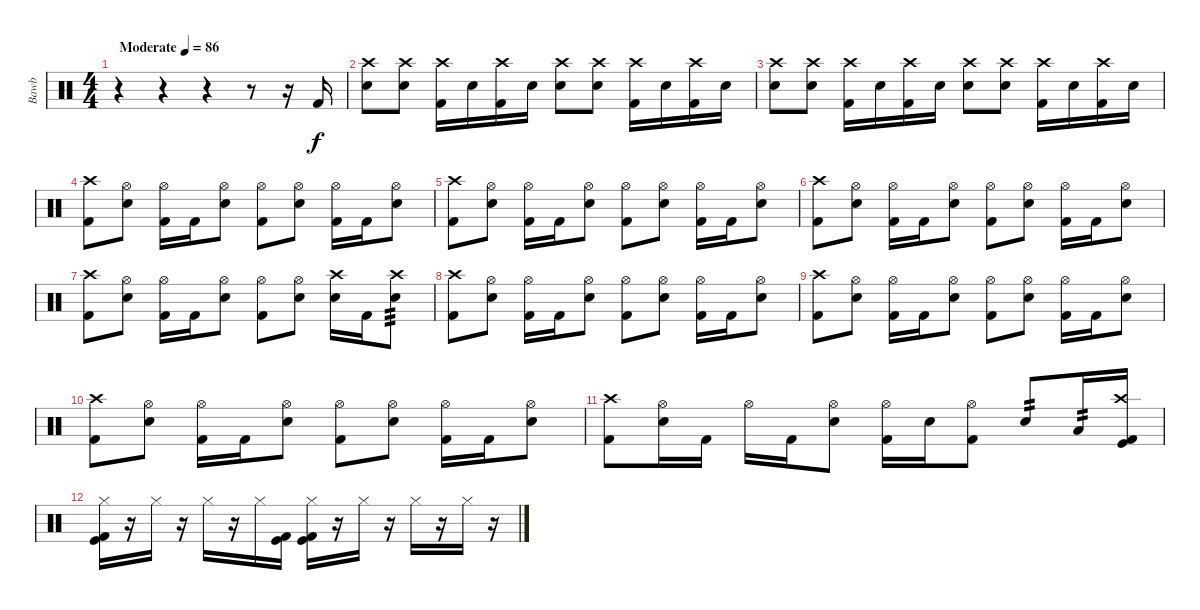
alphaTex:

\track ("Bawb" "Bawb") {instrument percussion}
\staff {score}
\articulation defaults
\ts (4 4)
\tempo (86 "Moderate")
\clef neutral
\ks c
r.4{dy f} r.4 r.4 r.8 r.16 "Kick (hit) 2".16 |
("Crash high (hit)" "Electric Snare (hit)").8 ("Crash high (hit)" "Electric Snare (hit)").8 ("Crash high (hit)" "Kick (hit) 2").16 "Electric Snare (hit)".16 ("Crash high (hit)" "Kick (hit) 2").16 "Electric Snare (hit)".16 ("Crash high (hit)" "Electric Snare (hit)").8 ("Crash high (hit)" "Electric Snare (hit)").8 ("Crash high (hit)" "Kick (hit) 2").16 "Electric Snare (hit)".16 ("Crash high (hit)" "Kick (hit) 2").16 "Electric Snare (hit)".16 |
("Crash high (hit)" "Electric Snare (hit)").8 ("Crash high (hit)" "Electric Snare (hit)").8 ("Crash high (hit)" "Kick (hit) 2").16 "Electric Snare (hit)".16 ("Crash high (hit)" "Kick (hit) 2").16 "Electric Snare (hit)".16 ("Crash high (hit)" "Electric Snare (hit)").8 ("Crash high (hit)" "Electric Snare (hit)").8 ("Crash high (hit)" "Kick (hit) 2").16 "Electric Snare (hit)".16 ("Crash high (hit)" "Kick (hit) 2").16 "Electric Snare (hit)".16 |
("Crash high (hit)" "Kick (hit) 2").8 ("Hi-Hat (open)" "Electric Snare (hit)").8 ("Hi-Hat (open)" "Kick (hit) 2").16 "Kick (hit) 2".16 ("Hi-Hat (open)" "Electric Snare (hit)").8 ("Hi-Hat (open)" "Kick (hit) 2").8 ("Hi-Hat (open)" "Electric Snare (hit)").8 ("Hi-Hat (open)" "Kick (hit) 2").16 "Kick (hit) 2".16 ("Hi-Hat (open)" "Electric Snare (hit)").8 |
("Crash high (hit)" "Kick (hit) 2").8 ("Hi-Hat (open)" "Electric Snare (hit)").8 ("Hi-Hat (open)" "Kick (hit) 2").16 "Kick (hit) 2".16 ("Hi-Hat (open)" "Electric Snare (hit)").8 ("Hi-Hat (open)" "Kick (hit) 2").8 ("Hi-Hat (open)" "Electric Snare (hit)").8 ("Hi-Hat (open)" "Kick (hit) 2").16 "Kick (hit) 2".16 ("Hi-Hat (open)" "Electric Snare (hit)").8 |
("Crash high (hit)" "Kick (hit) 2").8 ("Hi-Hat (open)" "Electric Snare (hit)").8 ("Hi-Hat (open)" "Kick (hit) 2").16 "Kick (hit) 2".16 ("Hi-Hat (open)" "Electric Snare (hit)").8 ("Hi-Hat (open)" "Kick (hit) 2").8 ("Hi-Hat (open)" "Electric Snare (hit)").8 ("Hi-Hat (open)" "Kick (hit) 2").16 "Kick (hit) 2".16 ("Hi-Hat (open)" "Electric Snare (hit)").8 |
("Crash high (hit)" "Kick (hit) 2").8 ("Hi-Hat (open)" "Electric Snare (hit)").8 ("Hi-Hat (open)" "Kick (hit) 2").16 "Kick (hit) 2".16 ("Hi-Hat (open)" "Electric Snare (hit)").8 ("Hi-Hat (open)" "Kick (hit) 2").8 ("Hi-Hat (open)" "Electric Snare (hit)").8 ("Crash high (hit)" "Electric Snare (hit)").16 "Kick (hit) 2".16 ("Crash high (hit)" "Electric Snare (hit)").8{tp 3} |
("Crash high (hit)" "Kick (hit) 2").8 ("Hi-Hat (open)" "Electric Snare (hit)").8 ("Hi-Hat (open)" "Kick (hit) 2").16 "Kick (hit) 2".16 ("Hi-Hat (open)" "Electric Snare (hit)").8 ("Hi-Hat (open)" "Kick (hit) 2").8 ("Hi-Hat (open)" "Electric Snare (hit)").8 ("Hi-Hat (open)" "Kick (hit) 2").16 "Kick (hit) 2".16 ("Hi-Hat (open)" "Electric Snare (hit)").8 |
("Crash high (hit)" "Kick (hit) 2").8 ("Hi-Hat (open)" "Electric Snare (hit)").8 ("Hi-Hat (open)" "Kick (hit) 2").16 "Kick (hit) 2".16 ("Hi-Hat (open)" "Electric Snare (hit)").8 ("Hi-Hat (open)" "Kick (hit) 2").8 ("Hi-Hat (open)" "Electric Snare (hit)").8 ("Hi-Hat (open)" "Kick (hit) 2").16 "Kick (hit) 2".16 ("Hi-Hat (open)" "Electric Snare (hit)").8 |
("Crash high (hit)" "Kick (hit) 2").8 ("Hi-Hat (open)" "Electric Snare (hit)").8 ("Hi-Hat (open)" "Kick (hit) 2").16 "Kick (hit) 2".16 ("Hi-Hat (open)" "Electric Snare (hit)").8 ("Hi-Hat (open)" "Kick (hit) 2").8 ("Hi-Hat (open)" "Electric Snare (hit)").8 ("Hi-Hat (open)" "Kick (hit) 2").16 "Kick (hit) 2".16 ("Hi-Hat (open)" "Electric Snare (hit)").8 |
("Crash high (hit)" "Kick (hit) 2").8 ("Hi-Hat (open)" "Electric Snare (hit)").16 "Kick (hit) 2".16 "Hi-Hat (open)".16 "Kick (hit) 2".16 ("Hi-Hat (open)" "Electric Snare (hit)").8 ("Hi-Hat (open)" "Kick (hit) 2").16 "Electric Snare (hit)".16 ("Hi-Hat (open)" "Kick (hit) 2").8 "Electric Snare (hit)".8{tp 2} "Low Tom (hit)".16{tp 2} ("Crash high (hit)" "Kick (hit)" "Kick (hit) 2").16 |
("Hi-Hat (closed)" "Kick (hit)" "Kick (hit) 2").16 r.16 "Hi-Hat (closed)".16 r.16 "Hi-Hat (closed)".16 r.16 "Hi-Hat (closed)".16 ("Kick (hit)" "Kick (hit) 2").16 ("Hi-Hat (closed)" "Kick (hit)" "Kick (hit) 2").16 r.16 "Hi-Hat (closed)".16 r.16 "Hi-Hat (closed)".16 r.16 "Hi-Hat (closed)".16 r.16
